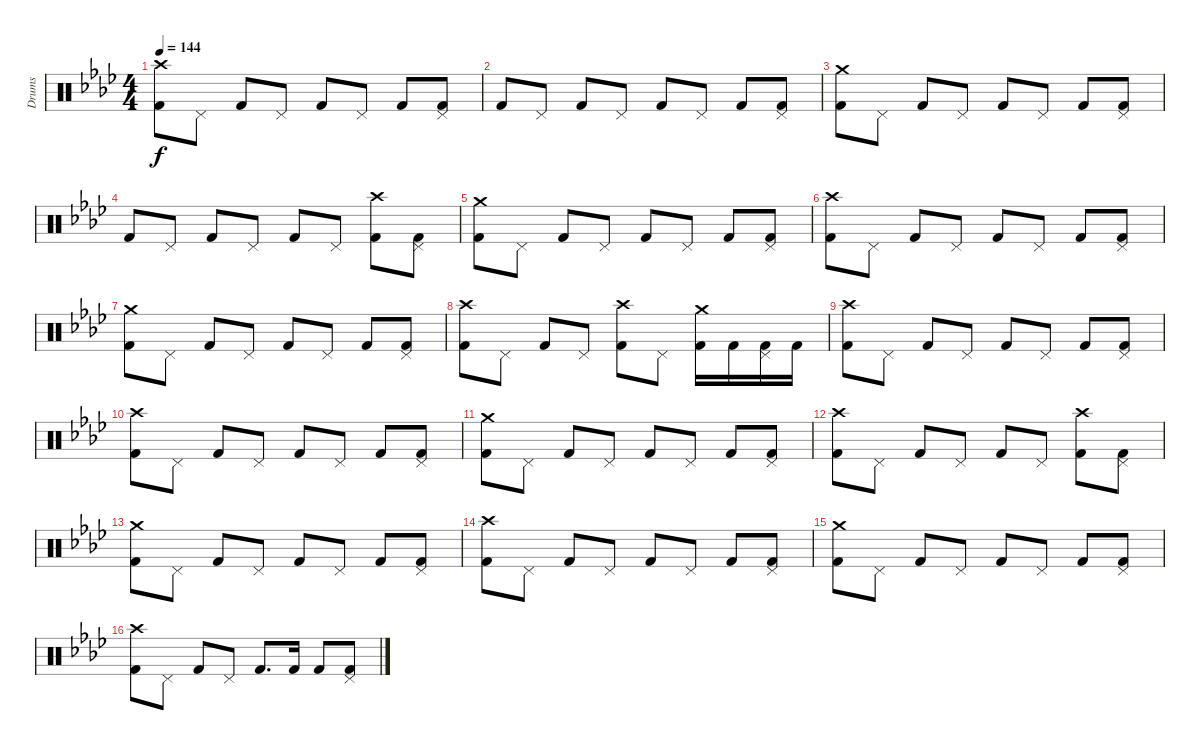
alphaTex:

\track ("Drums" "Drums") {instrument percussion}
\staff {score}
\articulation defaults
\ts (4 4)
\tempo 144
\clef neutral
\ks ab
("Kick (hit) 2" "Crash high (hit)").8{dy f} "Pedal Hi-Hat (hit)".8 "Kick (hit) 2".8 "Pedal Hi-Hat (hit)".8 "Kick (hit) 2".8 "Pedal Hi-Hat (hit)".8 "Kick (hit) 2".8 ("Kick (hit) 2" "Pedal Hi-Hat (hit)").8 |
"Kick (hit) 2".8 "Pedal Hi-Hat (hit)".8 "Kick (hit) 2".8 "Pedal Hi-Hat (hit)".8 "Kick (hit) 2".8 "Pedal Hi-Hat (hit)".8 "Kick (hit) 2".8 ("Kick (hit) 2" "Pedal Hi-Hat (hit)").8 |
("Kick (hit) 2" "Crash medium (hit)").8 "Pedal Hi-Hat (hit)".8 "Kick (hit) 2".8 "Pedal Hi-Hat (hit)".8 "Kick (hit) 2".8 "Pedal Hi-Hat (hit)".8 "Kick (hit) 2".8 ("Kick (hit) 2" "Pedal Hi-Hat (hit)").8 |
"Kick (hit) 2".8 "Pedal Hi-Hat (hit)".8 "Kick (hit) 2".8 "Pedal Hi-Hat (hit)".8 "Kick (hit) 2".8 "Pedal Hi-Hat (hit)".8 ("Kick (hit) 2" "Crash high (hit)").8 ("Kick (hit) 2" "Pedal Hi-Hat (hit)").8 |
("Kick (hit) 2" "Crash medium (hit)").8 "Pedal Hi-Hat (hit)".8 "Kick (hit) 2".8 "Pedal Hi-Hat (hit)".8 "Kick (hit) 2".8 "Pedal Hi-Hat (hit)".8 "Kick (hit) 2".8 ("Kick (hit) 2" "Pedal Hi-Hat (hit)").8 |
("Kick (hit) 2" "Crash high (hit)").8 "Pedal Hi-Hat (hit)".8 "Kick (hit) 2".8 "Pedal Hi-Hat (hit)".8 "Kick (hit) 2".8 "Pedal Hi-Hat (hit)".8 "Kick (hit) 2".8 ("Kick (hit) 2" "Pedal Hi-Hat (hit)").8 |
("Kick (hit) 2" "Crash medium (hit)").8 "Pedal Hi-Hat (hit)".8 "Kick (hit) 2".8 "Pedal Hi-Hat (hit)".8 "Kick (hit) 2".8 "Pedal Hi-Hat (hit)".8 "Kick (hit) 2".8 ("Kick (hit) 2" "Pedal Hi-Hat (hit)").8 |
("Kick (hit) 2" "Crash high (hit)").8 "Pedal Hi-Hat (hit)".8 "Kick (hit) 2".8 "Pedal Hi-Hat (hit)".8 ("Kick (hit) 2" "Crash high (hit)").8 "Pedal Hi-Hat (hit)".8 ("Kick (hit) 2" "Crash medium (hit)").16 "Kick (hit) 2".16 ("Kick (hit) 2" "Pedal Hi-Hat (hit)").16 "Kick (hit) 2".16 |
("Kick (hit) 2" "Crash high (hit)").8 "Pedal Hi-Hat (hit)".8 "Kick (hit) 2".8 "Pedal Hi-Hat (hit)".8 "Kick (hit) 2".8 "Pedal Hi-Hat (hit)".8 "Kick (hit) 2".8 ("Kick (hit) 2" "Pedal Hi-Hat (hit)").8 |
("Kick (hit) 2" "Crash high (hit)").8 "Pedal Hi-Hat (hit)".8 "Kick (hit) 2".8 "Pedal Hi-Hat (hit)".8 "Kick (hit) 2".8 "Pedal Hi-Hat (hit)".8 "Kick (hit) 2".8 ("Kick (hit) 2" "Pedal Hi-Hat (hit)").8 |
("Kick (hit) 2" "Crash medium (hit)").8 "Pedal Hi-Hat (hit)".8 "Kick (hit) 2".8 "Pedal Hi-Hat (hit)".8 "Kick (hit) 2".8 "Pedal Hi-Hat (hit)".8 "Kick (hit) 2".8 ("Kick (hit) 2" "Pedal Hi-Hat (hit)").8 |
("Kick (hit) 2" "Crash high (hit)").8 "Pedal Hi-Hat (hit)".8 "Kick (hit) 2".8 "Pedal Hi-Hat (hit)".8 "Kick (hit) 2".8 "Pedal Hi-Hat (hit)".8 ("Kick (hit) 2" "Crash high (hit)").8 ("Kick (hit) 2" "Pedal Hi-Hat (hit)").8 |
("Kick (hit) 2" "Crash medium (hit)").8 "Pedal Hi-Hat (hit)".8 "Kick (hit) 2".8 "Pedal Hi-Hat (hit)".8 "Kick (hit) 2".8 "Pedal Hi-Hat (hit)".8 "Kick (hit) 2".8 ("Kick (hit) 2" "Pedal Hi-Hat (hit)").8 |
("Kick (hit) 2" "Crash high (hit)").8 "Pedal Hi-Hat (hit)".8 "Kick (hit) 2".8 "Pedal Hi-Hat (hit)".8 "Kick (hit) 2".8 "Pedal Hi-Hat (hit)".8 "Kick (hit) 2".8 ("Kick (hit) 2" "Pedal Hi-Hat (hit)").8 |
("Kick (hit) 2" "Crash medium (hit)").8 "Pedal Hi-Hat (hit)".8 "Kick (hit) 2".8 "Pedal Hi-Hat (hit)".8 "Kick (hit) 2".8 "Pedal Hi-Hat (hit)".8 "Kick (hit) 2".8 ("Kick (hit) 2" "Pedal Hi-Hat (hit)").8 |
("Kick (hit) 2" "Crash high (hit)").8 "Pedal Hi-Hat (hit)".8 "Kick (hit) 2".8 "Pedal Hi-Hat (hit)".8 "Kick (hit) 2".8{d} "Kick (hit) 2".16 "Kick (hit) 2".8 ("Kick (hit) 2" "Pedal Hi-Hat (hit)").8
